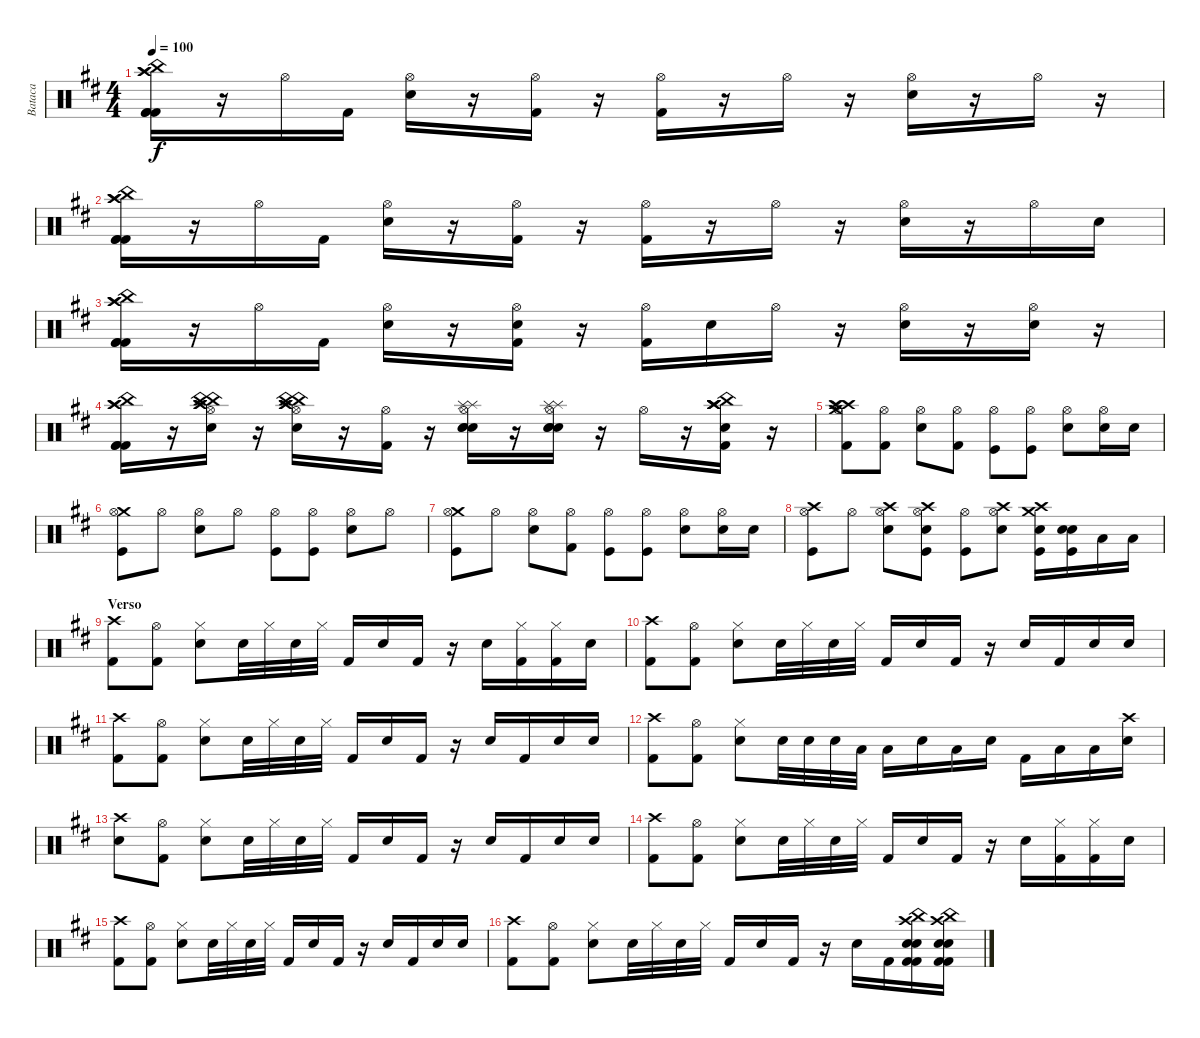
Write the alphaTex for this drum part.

\track ("Bataca" "Bataca") {instrument percussion}
\staff {score}
\articulation defaults
\ts (4 4)
\tempo 100
\clef neutral
\ks d
("Crash high (hit)" "Crash high (hit)" "China (hit)" "Kick (hit) 2" "Kick (hit) 2" "Kick (hit) 2").16{dy f} r.16 "Hi-Hat (open)".16 "Kick (hit) 2".16 ("Hi-Hat (open)" "Snare (hit) 2").16 r.16 ("Hi-Hat (open)" "Kick (hit) 2").16 r.16 ("Hi-Hat (open)" "Kick (hit) 2").16 r.16 "Hi-Hat (open)".16 r.16 ("Hi-Hat (open)" "Snare (hit) 2").16 r.16 "Hi-Hat (open)".16 r.16 |
("Crash high (hit)" "Crash high (hit)" "China (hit)" "Kick (hit) 2" "Kick (hit) 2" "Kick (hit) 2").16 r.16 "Hi-Hat (open)".16 "Kick (hit) 2".16 ("Hi-Hat (open)" "Snare (hit) 2").16 r.16 ("Hi-Hat (open)" "Kick (hit) 2").16 r.16 ("Hi-Hat (open)" "Kick (hit) 2").16 r.16 "Hi-Hat (open)".16 r.16 ("Hi-Hat (open)" "Snare (hit) 2").16 r.16 "Hi-Hat (open)".16 "Snare (hit) 2".16 |
("Crash high (hit)" "Crash high (hit)" "China (hit)" "Kick (hit) 2" "Kick (hit) 2" "Kick (hit) 2").16 r.16 "Hi-Hat (open)".16 "Kick (hit) 2".16 ("Hi-Hat (open)" "Snare (hit) 2").16 r.16 ("Hi-Hat (open)" "Snare (hit) 2" "Kick (hit) 2").16 r.16 ("Hi-Hat (open)" "Kick (hit) 2").16 "Snare (hit) 2".16 "Hi-Hat (open)".16 r.16 ("Hi-Hat (open)" "Snare (hit) 2").16 r.16 ("Hi-Hat (open)" "Snare (hit) 2").16 r.16 |
("Crash high (hit)" "Crash high (hit)" "China (hit)" "Kick (hit) 2" "Kick (hit) 2" "Kick (hit) 2").16 r.16 ("Hi-Hat (open)" "Snare (hit) 2" "Crash high (hit)" "Crash high (hit)" "China (hit)" "China (hit)").16 r.16 ("Hi-Hat (open)" "Snare (hit) 2" "Crash high (hit)" "Crash high (hit)" "China (hit)" "China (hit)").16 r.16 ("Hi-Hat (open)" "Kick (hit) 2").16 r.16 ("Hi-Hat (open)" "Snare (hit) 2" "Snare (hit)" "Snare (hit)" "Splash (hit)" "Splash (hit)").16 r.16 ("Hi-Hat (open)" "Snare (hit) 2" "Snare (hit)" "Snare (hit)" "Splash (hit)" "Splash (hit)").16 r.16 "Hi-Hat (open)".16 r.16 ("Kick (hit) 2" "Snare (hit) 2" "Crash high (hit)" "Crash high (hit)" "China (hit)" "Crash high (hit)").16 r.16 |
("Crash medium (hit)" "Hi-Hat (open)" "Crash high (hit)" "Kick (hit) 2" "Splash (hit)" "Crash high (hit)").8 ("Hi-Hat (open)" "Kick (hit) 2").8 ("Hi-Hat (open)" "Snare (hit) 2").8 ("Hi-Hat (open)" "Kick (hit) 2").8 ("Hi-Hat (open)" "Kick (hit)").8 ("Hi-Hat (open)" "Kick (hit)").8 ("Hi-Hat (open)" "Snare (hit) 2").8 ("Hi-Hat (open)" "Snare (hit) 2").16 "Snare (hit) 2".16 |
("Crash medium (hit)" "Hi-Hat (open)" "Kick (hit)").8 "Hi-Hat (open)".8 ("Hi-Hat (open)" "Snare (hit) 2").8 "Hi-Hat (open)".8 ("Hi-Hat (open)" "Kick (hit)").8 ("Hi-Hat (open)" "Kick (hit)").8 ("Hi-Hat (open)" "Snare (hit) 2").8 "Hi-Hat (open)".8 |
("Crash medium (hit)" "Hi-Hat (open)" "Kick (hit)").8 "Hi-Hat (open)".8 ("Hi-Hat (open)" "Snare (hit) 2").8 ("Hi-Hat (open)" "Kick (hit) 2").8 ("Hi-Hat (open)" "Kick (hit)").8 ("Hi-Hat (open)" "Kick (hit)").8 ("Hi-Hat (open)" "Snare (hit) 2").8 ("Hi-Hat (open)" "Snare (hit) 2").16 "Snare (hit) 2".16 |
("Crash high (hit)" "Hi-Hat (open)" "Kick (hit)").8 "Hi-Hat (open)".8 ("Snare (hit) 2" "Hi-Hat (open)" "Crash high (hit)").8 ("Snare (hit) 2" "Hi-Hat (open)" "Crash high (hit)" "Kick (hit)").8 ("Hi-Hat (open)" "Kick (hit)").8 ("Snare (hit) 2" "Hi-Hat (open)" "Crash high (hit)").8 ("Crash high (hit)" "Crash medium (hit)" "Snare (hit) 2" "Kick (hit)").16 ("Snare (hit) 2" "Snare (hit) 2" "Kick (hit)").16 "Low Floor Tom (hit)".16 "Low Floor Tom (hit)".16 |
\section ("" "Verso")
("Crash high (hit)" "Kick (hit) 2").8 ("Hi-Hat (open)" "Kick (hit) 2").8 ("Hi-Hat (closed)" "Snare (hit) 2").8 "Snare (hit) 2".32 "Hi-Hat (closed)".32 "Snare (hit) 2".32 "Hi-Hat (closed)".32 "Kick (hit) 2".16 "Snare (hit) 2".16 "Kick (hit) 2".16 r.16 "Snare (hit) 2".16 ("Kick (hit) 2" "Hi-Hat (closed)").16 ("Kick (hit) 2" "Hi-Hat (closed)").16 "Snare (hit) 2".16 |
("Crash high (hit)" "Kick (hit) 2").8 ("Hi-Hat (open)" "Kick (hit) 2").8 ("Hi-Hat (closed)" "Snare (hit) 2").8 "Snare (hit) 2".32 "Hi-Hat (closed)".32 "Snare (hit) 2".32 "Hi-Hat (closed)".32 "Kick (hit) 2".16 "Snare (hit) 2".16 "Kick (hit) 2".16 r.16 "Snare (hit) 2".16 "Kick (hit) 2".16 "Snare (hit) 2".16 "Snare (hit) 2".16 |
("Crash high (hit)" "Kick (hit) 2").8 ("Hi-Hat (open)" "Kick (hit) 2").8 ("Hi-Hat (closed)" "Snare (hit) 2").8 "Snare (hit) 2".32 "Hi-Hat (closed)".32 "Snare (hit) 2".32 "Hi-Hat (closed)".32 "Kick (hit) 2".16 "Snare (hit) 2".16 "Kick (hit) 2".16 r.16 "Snare (hit) 2".16 "Kick (hit) 2".16 "Snare (hit) 2".16 "Snare (hit) 2".16 |
("Crash high (hit)" "Kick (hit) 2").8 ("Hi-Hat (open)" "Kick (hit) 2").8 ("Hi-Hat (closed)" "Snare (hit) 2").8 "Snare (hit) 2".32 "Snare (hit) 2".32 "Snare (hit) 2".32 "Low Floor Tom (hit)".32 "Low Floor Tom (hit)".16 "Snare (hit) 2".16 "Low Floor Tom (hit)".16 "Snare (hit) 2".16 "Kick (hit) 2".16 "Low Floor Tom (hit)".16 "Low Floor Tom (hit)".16 ("Snare (hit) 2" "Crash high (hit)").16 |
("Snare (hit) 2" "Crash high (hit)").8 ("Hi-Hat (open)" "Kick (hit) 2").8 ("Hi-Hat (closed)" "Snare (hit) 2").8 "Snare (hit) 2".32 "Hi-Hat (closed)".32 "Snare (hit) 2".32 "Hi-Hat (closed)".32 "Kick (hit) 2".16 "Snare (hit) 2".16 "Kick (hit) 2".16 r.16 "Snare (hit) 2".16 "Kick (hit) 2".16 "Snare (hit) 2".16 "Snare (hit) 2".16 |
("Crash high (hit)" "Kick (hit) 2").8 ("Hi-Hat (open)" "Kick (hit) 2").8 ("Hi-Hat (closed)" "Snare (hit) 2").8 "Snare (hit) 2".32 "Hi-Hat (closed)".32 "Snare (hit) 2".32 "Hi-Hat (closed)".32 "Kick (hit) 2".16 "Snare (hit) 2".16 "Kick (hit) 2".16 r.16 "Snare (hit) 2".16 ("Kick (hit) 2" "Hi-Hat (closed)").16 ("Kick (hit) 2" "Hi-Hat (closed)").16 "Snare (hit) 2".16 |
("Crash high (hit)" "Kick (hit) 2").8 ("Hi-Hat (open)" "Kick (hit) 2").8 ("Hi-Hat (closed)" "Snare (hit) 2").8 "Snare (hit) 2".32 "Hi-Hat (closed)".32 "Snare (hit) 2".32 "Hi-Hat (closed)".32 "Kick (hit) 2".16 "Snare (hit) 2".16 "Kick (hit) 2".16 r.16 "Snare (hit) 2".16 "Kick (hit) 2".16 "Snare (hit) 2".16 "Snare (hit) 2".16 |
("Crash high (hit)" "Kick (hit) 2").8 ("Hi-Hat (open)" "Kick (hit) 2").8 ("Hi-Hat (closed)" "Snare (hit) 2").8 "Snare (hit) 2".32 "Hi-Hat (closed)".32 "Snare (hit) 2".32 "Hi-Hat (closed)".32 "Kick (hit) 2".16 "Snare (hit) 2".16 "Kick (hit) 2".16 r.16 "Snare (hit) 2".16 "Kick (hit) 2".16 ("Snare (hit) 2" "Crash high (hit)" "China (hit)" "Snare (hit) 2" "Kick (hit) 2" "Kick (hit) 2").16 ("Snare (hit) 2" "Crash high (hit)" "China (hit)" "Snare (hit) 2" "Kick (hit) 2" "Kick (hit) 2").16
